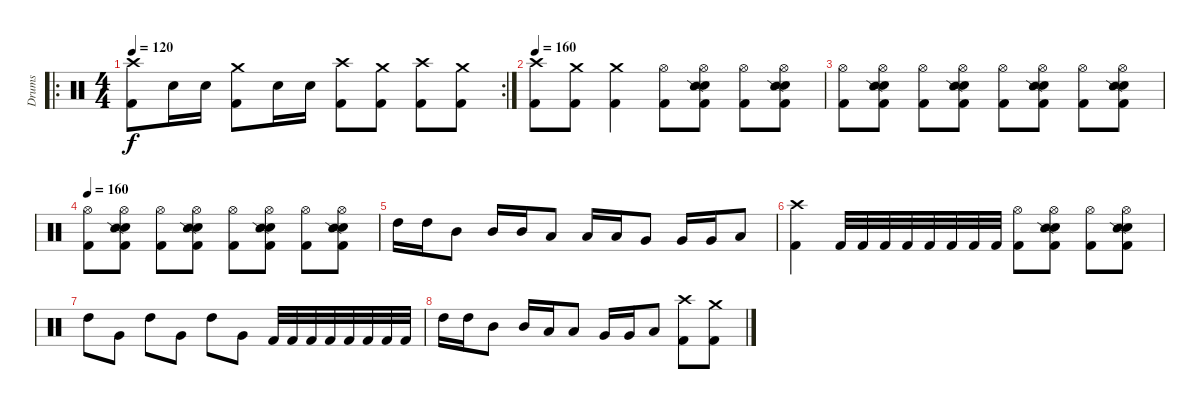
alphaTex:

\track ("Drums" "Drums") {instrument percussion}
\staff {score}
\articulation defaults
\ro
\rc 2
\ts (4 4)
\tempo 120
\clef neutral
\ks c
("Crash high (hit)" "Kick (hit) 2").8{dy f} "Electric Snare (hit)".16 "Electric Snare (hit)".16 ("Crash medium (hit)" "Kick (hit) 2").8 "Electric Snare (hit)".16 "Electric Snare (hit)".16 ("Crash high (hit)" "Kick (hit) 2").8 ("Crash medium (hit)" "Kick (hit) 2").8 ("Crash high (hit)" "Kick (hit) 2").8 ("Crash medium (hit)" "Kick (hit) 2").8 |
\tempo 160
("Crash high (hit)" "Kick (hit) 2").8 ("Crash medium (hit)" "Kick (hit) 2").8 ("Crash medium (hit)" "Kick (hit) 2").4 ("Hi-Hat (open)" "Kick (hit) 2").8 ("Hi-Hat (open)" "Electric Snare (hit)" "Snare (side stick) 2" "Kick (hit) 2").8 ("Hi-Hat (open)" "Kick (hit) 2").8 ("Hi-Hat (open)" "Electric Snare (hit)" "Snare (side stick) 2" "Kick (hit) 2").8 |
("Hi-Hat (open)" "Kick (hit) 2").8 ("Hi-Hat (open)" "Electric Snare (hit)" "Snare (side stick) 2" "Kick (hit) 2").8 ("Hi-Hat (open)" "Kick (hit) 2").8 ("Hi-Hat (open)" "Electric Snare (hit)" "Snare (side stick) 2" "Kick (hit) 2").8 ("Hi-Hat (open)" "Kick (hit) 2").8 ("Hi-Hat (open)" "Electric Snare (hit)" "Snare (side stick) 2" "Kick (hit) 2").8 ("Hi-Hat (open)" "Kick (hit) 2").8 ("Hi-Hat (open)" "Electric Snare (hit)" "Snare (side stick) 2" "Kick (hit) 2").8 |
\tempo 160
("Hi-Hat (open)" "Kick (hit) 2").8 ("Hi-Hat (open)" "Electric Snare (hit)" "Snare (side stick) 2" "Kick (hit) 2").8 ("Hi-Hat (open)" "Kick (hit) 2").8 ("Hi-Hat (open)" "Electric Snare (hit)" "Snare (side stick) 2" "Kick (hit) 2").8 ("Hi-Hat (open)" "Kick (hit) 2").8 ("Hi-Hat (open)" "Electric Snare (hit)" "Snare (side stick) 2" "Kick (hit) 2").8 ("Hi-Hat (open)" "Kick (hit) 2").8 ("Hi-Hat (open)" "Electric Snare (hit)" "Snare (side stick) 2" "Kick (hit) 2").8 |
"High Tom (hit)".16 "High Tom (hit)".16 "Mid Tom (hit)".8 "Mid Tom (hit)".16 "Mid Tom (hit)".16 "Low Tom (hit)".8 "Low Tom (hit)".16 "Low Tom (hit)".16 "Very Low Tom (hit)".8 "Very Low Tom (hit)".16 "Very Low Tom (hit)".16 "Low Floor Tom (hit)".8 |
("Crash high (hit)" "Kick (hit) 2").4 "Kick (hit) 2".32 "Kick (hit) 2".32 "Kick (hit) 2".32 "Kick (hit) 2".32 "Kick (hit) 2".32 "Kick (hit) 2".32 "Kick (hit) 2".32 "Kick (hit) 2".32 ("Hi-Hat (open)" "Kick (hit) 2").8 ("Hi-Hat (open)" "Electric Snare (hit)" "Snare (side stick) 2" "Kick (hit) 2").8 ("Hi-Hat (open)" "Kick (hit) 2").8 ("Hi-Hat (open)" "Electric Snare (hit)" "Snare (side stick) 2" "Kick (hit) 2").8 |
"High Tom (hit)".8 "Very Low Tom (hit)".8 "High Tom (hit)".8 "Very Low Tom (hit)".8 "High Tom (hit)".8 "Very Low Tom (hit)".8 "Kick (hit) 2".32 "Kick (hit) 2".32 "Kick (hit) 2".32 "Kick (hit) 2".32 "Kick (hit) 2".32 "Kick (hit) 2".32 "Kick (hit) 2".32 "Kick (hit) 2".32 |
"High Tom (hit)".16 "High Tom (hit)".16 "Mid Tom (hit)".8 "Mid Tom (hit)".16 "Low Tom (hit)".16 "Low Tom (hit)".8 "Very Low Tom (hit)".16 "Very Low Tom (hit)".16 "Low Floor Tom (hit)".8 ("Crash high (hit)" "Kick (hit) 2").8 ("Crash medium (hit)" "Kick (hit) 2").8
